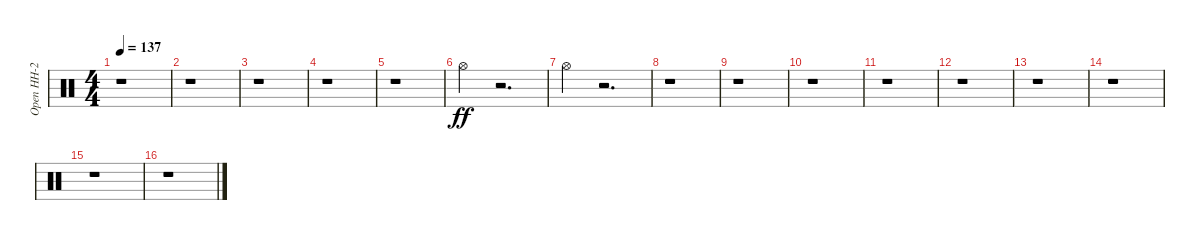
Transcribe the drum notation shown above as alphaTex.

\track ("Open HH-2" "Open HH-2") {instrument percussion}
\staff {score}
\articulation defaults
\ts (4 4)
\tempo 137
\clef neutral
\ks c
r.1{dy ff} |
r.1 |
r.1 |
r.1 |
r.1 |
"Hi-Hat (open)".4 r.2{d} |
"Hi-Hat (open)".4 r.2{d} |
r.1 |
r.1 |
r.1 |
r.1 |
r.1 |
r.1 |
r.1 |
r.1 |
r.1
